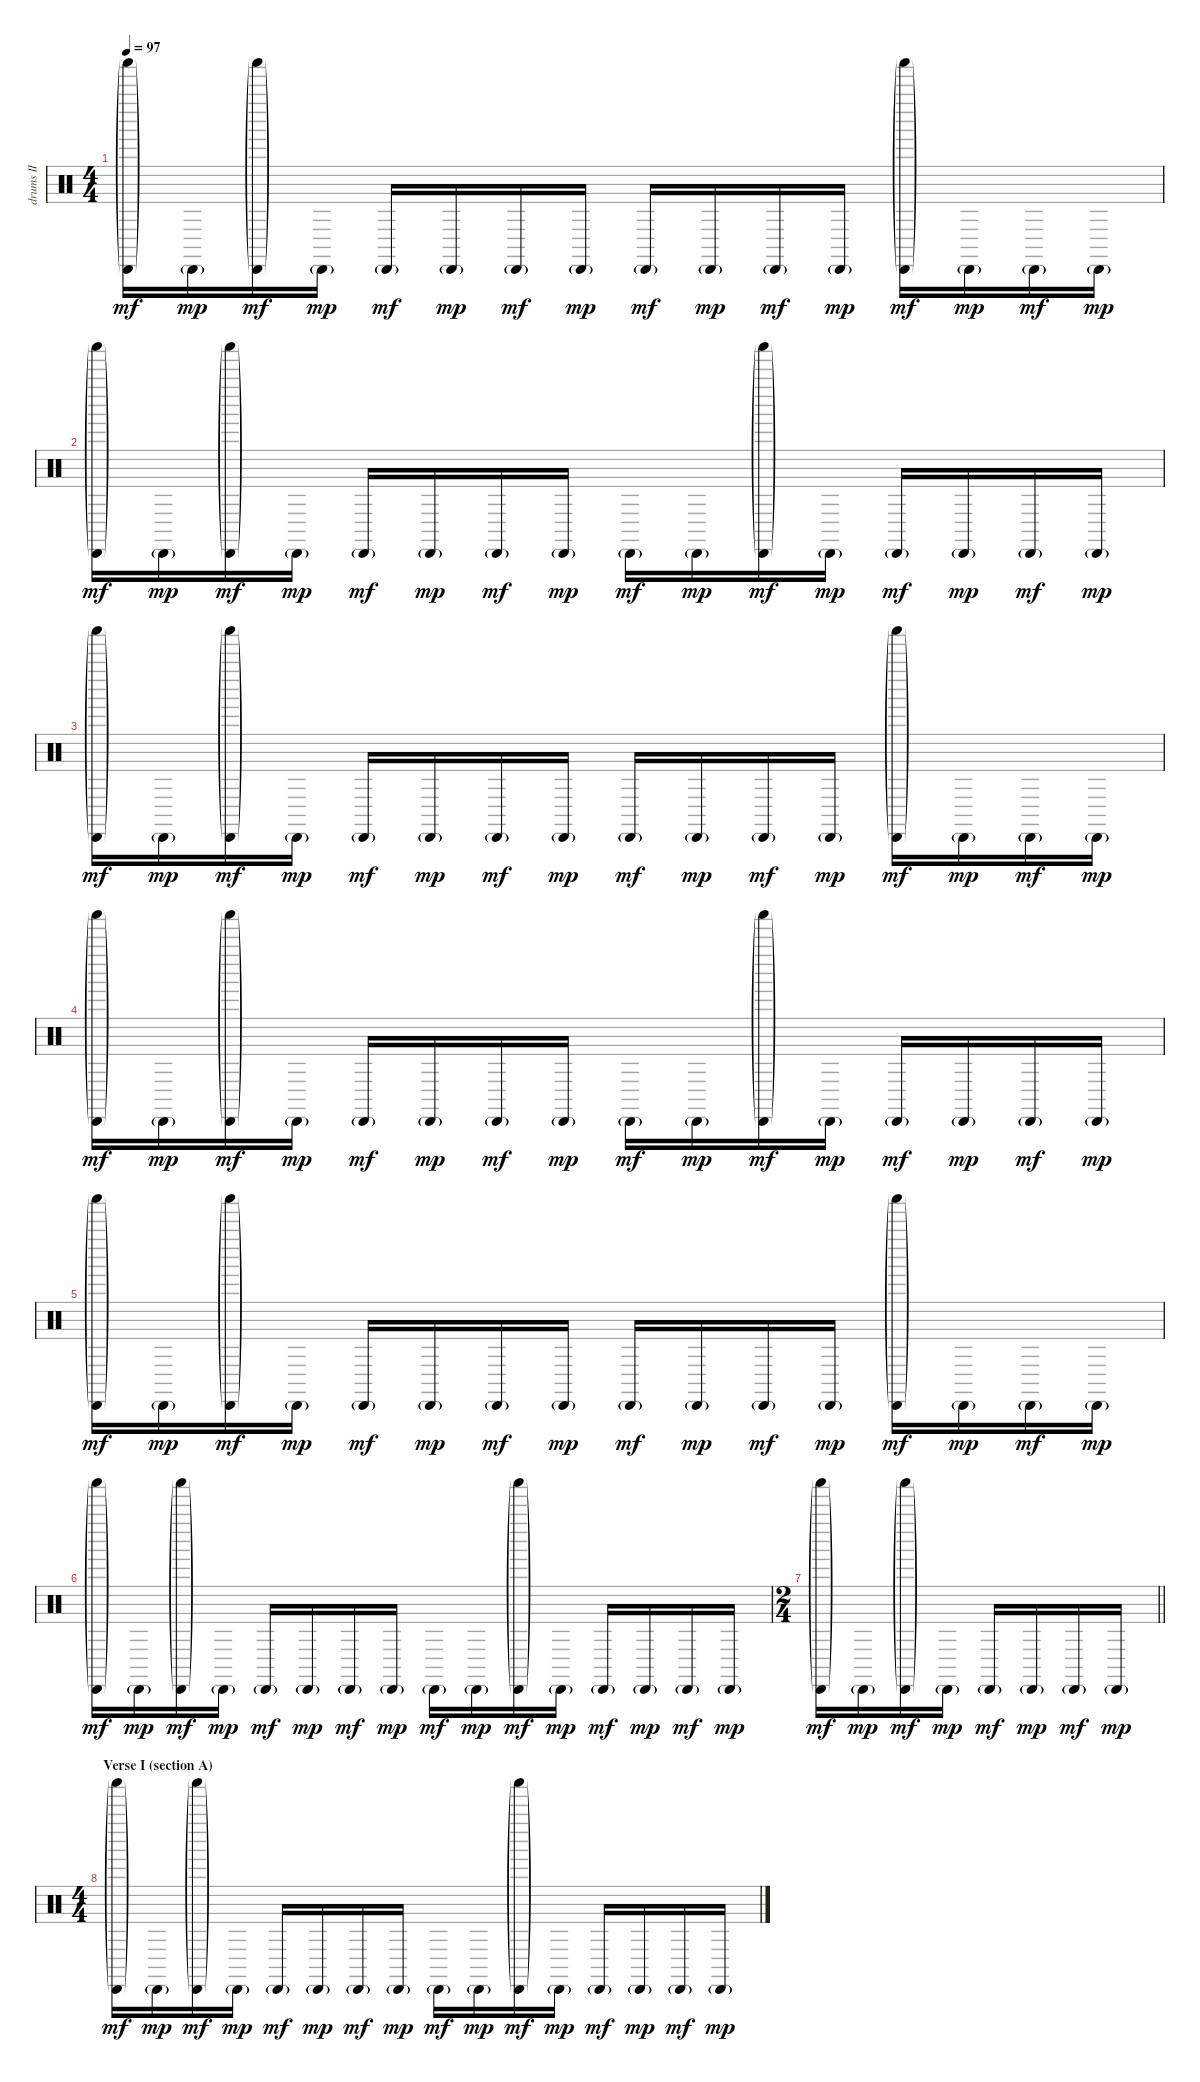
\track ("drums II" "drums II") {instrument percussion}
\staff {score}
\articulation defaults
\ts (4 4)
\tempo 97
\clef neutral
\ks c
("Shaker (hit)"{g} "Cabasa (hit)"{g}).16{dy mf} "Cabasa (hit)"{g}.16{dy mp} ("Shaker (hit)"{g} "Cabasa (hit)"{g}).16{dy mf} "Cabasa (hit)"{g}.16{dy mp} "Cabasa (hit)"{g}.16{dy mf} "Cabasa (hit)"{g}.16{dy mp} "Cabasa (hit)"{g}.16{dy mf} "Cabasa (hit)"{g}.16{dy mp} "Cabasa (hit)"{g}.16{dy mf} "Cabasa (hit)"{g}.16{dy mp} "Cabasa (hit)"{g}.16{dy mf} "Cabasa (hit)"{g}.16{dy mp} ("Shaker (hit)"{g} "Cabasa (hit)"{g}).16{dy mf} "Cabasa (hit)"{g}.16{dy mp} "Cabasa (hit)"{g}.16{dy mf} "Cabasa (hit)"{g}.16{dy mp} |
("Shaker (hit)"{g} "Cabasa (hit)"{g}).16{dy mf} "Cabasa (hit)"{g}.16{dy mp} ("Shaker (hit)"{g} "Cabasa (hit)"{g}).16{dy mf} "Cabasa (hit)"{g}.16{dy mp} "Cabasa (hit)"{g}.16{dy mf} "Cabasa (hit)"{g}.16{dy mp} "Cabasa (hit)"{g}.16{dy mf} "Cabasa (hit)"{g}.16{dy mp} "Cabasa (hit)"{g}.16{dy mf} "Cabasa (hit)"{g}.16{dy mp} ("Shaker (hit)"{g} "Cabasa (hit)"{g}).16{dy mf} "Cabasa (hit)"{g}.16{dy mp} "Cabasa (hit)"{g}.16{dy mf} "Cabasa (hit)"{g}.16{dy mp} "Cabasa (hit)"{g}.16{dy mf} "Cabasa (hit)"{g}.16{dy mp} |
("Shaker (hit)"{g} "Cabasa (hit)"{g}).16{dy mf} "Cabasa (hit)"{g}.16{dy mp} ("Shaker (hit)"{g} "Cabasa (hit)"{g}).16{dy mf} "Cabasa (hit)"{g}.16{dy mp} "Cabasa (hit)"{g}.16{dy mf} "Cabasa (hit)"{g}.16{dy mp} "Cabasa (hit)"{g}.16{dy mf} "Cabasa (hit)"{g}.16{dy mp} "Cabasa (hit)"{g}.16{dy mf} "Cabasa (hit)"{g}.16{dy mp} "Cabasa (hit)"{g}.16{dy mf} "Cabasa (hit)"{g}.16{dy mp} ("Shaker (hit)"{g} "Cabasa (hit)"{g}).16{dy mf} "Cabasa (hit)"{g}.16{dy mp} "Cabasa (hit)"{g}.16{dy mf} "Cabasa (hit)"{g}.16{dy mp} |
("Shaker (hit)"{g} "Cabasa (hit)"{g}).16{dy mf} "Cabasa (hit)"{g}.16{dy mp} ("Shaker (hit)"{g} "Cabasa (hit)"{g}).16{dy mf} "Cabasa (hit)"{g}.16{dy mp} "Cabasa (hit)"{g}.16{dy mf} "Cabasa (hit)"{g}.16{dy mp} "Cabasa (hit)"{g}.16{dy mf} "Cabasa (hit)"{g}.16{dy mp} "Cabasa (hit)"{g}.16{dy mf} "Cabasa (hit)"{g}.16{dy mp} ("Shaker (hit)"{g} "Cabasa (hit)"{g}).16{dy mf} "Cabasa (hit)"{g}.16{dy mp} "Cabasa (hit)"{g}.16{dy mf} "Cabasa (hit)"{g}.16{dy mp} "Cabasa (hit)"{g}.16{dy mf} "Cabasa (hit)"{g}.16{dy mp} |
("Shaker (hit)"{g} "Cabasa (hit)"{g}).16{dy mf} "Cabasa (hit)"{g}.16{dy mp} ("Shaker (hit)"{g} "Cabasa (hit)"{g}).16{dy mf} "Cabasa (hit)"{g}.16{dy mp} "Cabasa (hit)"{g}.16{dy mf} "Cabasa (hit)"{g}.16{dy mp} "Cabasa (hit)"{g}.16{dy mf} "Cabasa (hit)"{g}.16{dy mp} "Cabasa (hit)"{g}.16{dy mf} "Cabasa (hit)"{g}.16{dy mp} "Cabasa (hit)"{g}.16{dy mf} "Cabasa (hit)"{g}.16{dy mp} ("Shaker (hit)"{g} "Cabasa (hit)"{g}).16{dy mf} "Cabasa (hit)"{g}.16{dy mp} "Cabasa (hit)"{g}.16{dy mf} "Cabasa (hit)"{g}.16{dy mp} |
("Shaker (hit)"{g} "Cabasa (hit)"{g}).16{dy mf} "Cabasa (hit)"{g}.16{dy mp} ("Shaker (hit)"{g} "Cabasa (hit)"{g}).16{dy mf} "Cabasa (hit)"{g}.16{dy mp} "Cabasa (hit)"{g}.16{dy mf} "Cabasa (hit)"{g}.16{dy mp} "Cabasa (hit)"{g}.16{dy mf} "Cabasa (hit)"{g}.16{dy mp} "Cabasa (hit)"{g}.16{dy mf} "Cabasa (hit)"{g}.16{dy mp} ("Shaker (hit)"{g} "Cabasa (hit)"{g}).16{dy mf} "Cabasa (hit)"{g}.16{dy mp} "Cabasa (hit)"{g}.16{dy mf} "Cabasa (hit)"{g}.16{dy mp} "Cabasa (hit)"{g}.16{dy mf} "Cabasa (hit)"{g}.16{dy mp} |
\ts (2 4)
\barLineRight lightlight
("Shaker (hit)"{g} "Cabasa (hit)"{g}).16{dy mf} "Cabasa (hit)"{g}.16{dy mp} ("Shaker (hit)"{g} "Cabasa (hit)"{g}).16{dy mf} "Cabasa (hit)"{g}.16{dy mp} "Cabasa (hit)"{g}.16{dy mf} "Cabasa (hit)"{g}.16{dy mp} "Cabasa (hit)"{g}.16{dy mf} "Cabasa (hit)"{g}.16{dy mp} |
\ts (4 4)
\section ("" "Verse I (section A)")
("Shaker (hit)"{g} "Cabasa (hit)"{g}).16{dy mf} "Cabasa (hit)"{g}.16{dy mp} ("Shaker (hit)"{g} "Cabasa (hit)"{g}).16{dy mf} "Cabasa (hit)"{g}.16{dy mp} "Cabasa (hit)"{g}.16{dy mf} "Cabasa (hit)"{g}.16{dy mp} "Cabasa (hit)"{g}.16{dy mf} "Cabasa (hit)"{g}.16{dy mp} "Cabasa (hit)"{g}.16{dy mf} "Cabasa (hit)"{g}.16{dy mp} ("Shaker (hit)"{g} "Cabasa (hit)"{g}).16{dy mf} "Cabasa (hit)"{g}.16{dy mp} "Cabasa (hit)"{g}.16{dy mf} "Cabasa (hit)"{g}.16{dy mp} "Cabasa (hit)"{g}.16{dy mf} "Cabasa (hit)"{g}.16{dy mp}
